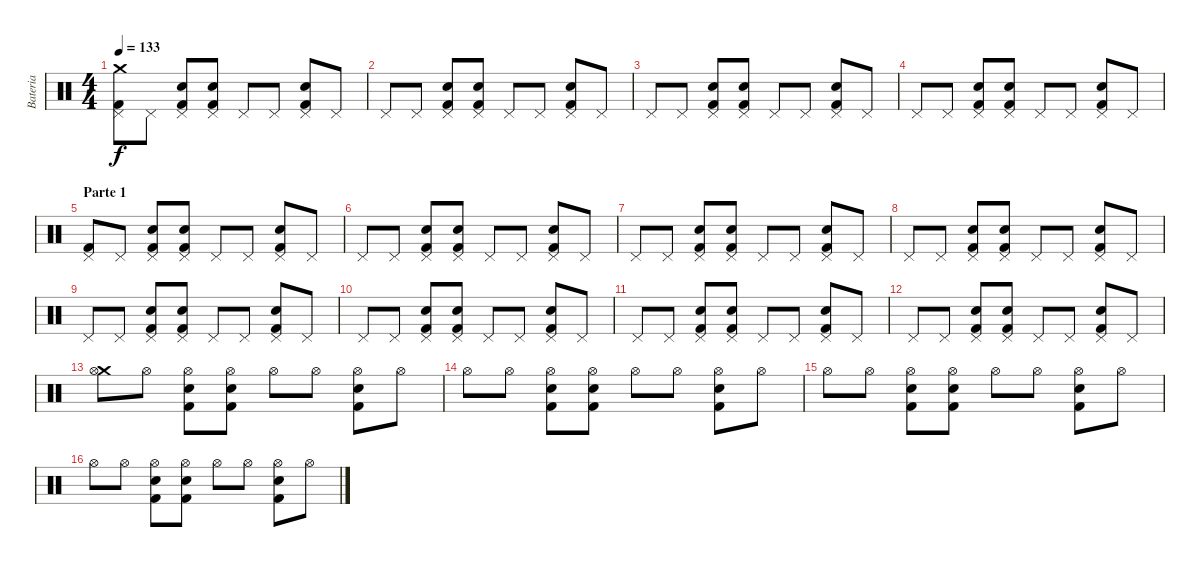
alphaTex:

\track ("Bateria" "Bateria") {instrument percussion}
\staff {score}
\articulation defaults
\ts (4 4)
\tempo 133
\clef neutral
\ks c
("Crash medium (hit)" "Kick (hit) 2" "Pedal Hi-Hat (hit)").8{dy f} "Pedal Hi-Hat (hit)".8 ("Kick (hit) 2" "Pedal Hi-Hat (hit)" "Electric Snare (hit)").8 ("Kick (hit) 2" "Pedal Hi-Hat (hit)" "Electric Snare (hit)").8 "Pedal Hi-Hat (hit)".8 "Pedal Hi-Hat (hit)".8 ("Kick (hit) 2" "Pedal Hi-Hat (hit)" "Electric Snare (hit)").8 "Pedal Hi-Hat (hit)".8 |
"Pedal Hi-Hat (hit)".8 "Pedal Hi-Hat (hit)".8 ("Kick (hit) 2" "Pedal Hi-Hat (hit)" "Electric Snare (hit)").8 ("Kick (hit) 2" "Pedal Hi-Hat (hit)" "Electric Snare (hit)").8 "Pedal Hi-Hat (hit)".8 "Pedal Hi-Hat (hit)".8 ("Kick (hit) 2" "Pedal Hi-Hat (hit)" "Electric Snare (hit)").8 "Pedal Hi-Hat (hit)".8 |
"Pedal Hi-Hat (hit)".8 "Pedal Hi-Hat (hit)".8 ("Kick (hit) 2" "Pedal Hi-Hat (hit)" "Electric Snare (hit)").8 ("Kick (hit) 2" "Pedal Hi-Hat (hit)" "Electric Snare (hit)").8 "Pedal Hi-Hat (hit)".8 "Pedal Hi-Hat (hit)".8 ("Kick (hit) 2" "Pedal Hi-Hat (hit)" "Electric Snare (hit)").8 "Pedal Hi-Hat (hit)".8 |
"Pedal Hi-Hat (hit)".8 "Pedal Hi-Hat (hit)".8 ("Kick (hit) 2" "Pedal Hi-Hat (hit)" "Electric Snare (hit)").8 ("Kick (hit) 2" "Pedal Hi-Hat (hit)" "Electric Snare (hit)").8 "Pedal Hi-Hat (hit)".8 "Pedal Hi-Hat (hit)".8 ("Kick (hit) 2" "Pedal Hi-Hat (hit)" "Electric Snare (hit)").8 "Pedal Hi-Hat (hit)".8 |
\section ("" "Parte 1")
("Pedal Hi-Hat (hit)" "Kick (hit) 2").8 "Pedal Hi-Hat (hit)".8 ("Kick (hit) 2" "Pedal Hi-Hat (hit)" "Electric Snare (hit)").8 ("Kick (hit) 2" "Pedal Hi-Hat (hit)" "Electric Snare (hit)").8 "Pedal Hi-Hat (hit)".8 "Pedal Hi-Hat (hit)".8 ("Kick (hit) 2" "Pedal Hi-Hat (hit)" "Electric Snare (hit)").8 "Pedal Hi-Hat (hit)".8 |
"Pedal Hi-Hat (hit)".8 "Pedal Hi-Hat (hit)".8 ("Kick (hit) 2" "Pedal Hi-Hat (hit)" "Electric Snare (hit)").8 ("Kick (hit) 2" "Pedal Hi-Hat (hit)" "Electric Snare (hit)").8 "Pedal Hi-Hat (hit)".8 "Pedal Hi-Hat (hit)".8 ("Kick (hit) 2" "Pedal Hi-Hat (hit)" "Electric Snare (hit)").8 "Pedal Hi-Hat (hit)".8 |
"Pedal Hi-Hat (hit)".8 "Pedal Hi-Hat (hit)".8 ("Kick (hit) 2" "Pedal Hi-Hat (hit)" "Electric Snare (hit)").8 ("Kick (hit) 2" "Pedal Hi-Hat (hit)" "Electric Snare (hit)").8 "Pedal Hi-Hat (hit)".8 "Pedal Hi-Hat (hit)".8 ("Kick (hit) 2" "Pedal Hi-Hat (hit)" "Electric Snare (hit)").8 "Pedal Hi-Hat (hit)".8 |
"Pedal Hi-Hat (hit)".8 "Pedal Hi-Hat (hit)".8 ("Kick (hit) 2" "Pedal Hi-Hat (hit)" "Electric Snare (hit)").8 ("Kick (hit) 2" "Pedal Hi-Hat (hit)" "Electric Snare (hit)").8 "Pedal Hi-Hat (hit)".8 "Pedal Hi-Hat (hit)".8 ("Kick (hit) 2" "Pedal Hi-Hat (hit)" "Electric Snare (hit)").8 "Pedal Hi-Hat (hit)".8 |
"Pedal Hi-Hat (hit)".8 "Pedal Hi-Hat (hit)".8 ("Kick (hit) 2" "Pedal Hi-Hat (hit)" "Electric Snare (hit)").8 ("Kick (hit) 2" "Pedal Hi-Hat (hit)" "Electric Snare (hit)").8 "Pedal Hi-Hat (hit)".8 "Pedal Hi-Hat (hit)".8 ("Kick (hit) 2" "Pedal Hi-Hat (hit)" "Electric Snare (hit)").8 "Pedal Hi-Hat (hit)".8 |
"Pedal Hi-Hat (hit)".8 "Pedal Hi-Hat (hit)".8 ("Kick (hit) 2" "Pedal Hi-Hat (hit)" "Electric Snare (hit)").8 ("Kick (hit) 2" "Pedal Hi-Hat (hit)" "Electric Snare (hit)").8 "Pedal Hi-Hat (hit)".8 "Pedal Hi-Hat (hit)".8 ("Kick (hit) 2" "Pedal Hi-Hat (hit)" "Electric Snare (hit)").8 "Pedal Hi-Hat (hit)".8 |
"Pedal Hi-Hat (hit)".8 "Pedal Hi-Hat (hit)".8 ("Kick (hit) 2" "Pedal Hi-Hat (hit)" "Electric Snare (hit)").8 ("Kick (hit) 2" "Pedal Hi-Hat (hit)" "Electric Snare (hit)").8 "Pedal Hi-Hat (hit)".8 "Pedal Hi-Hat (hit)".8 ("Kick (hit) 2" "Pedal Hi-Hat (hit)" "Electric Snare (hit)").8 "Pedal Hi-Hat (hit)".8 |
"Pedal Hi-Hat (hit)".8 "Pedal Hi-Hat (hit)".8 ("Kick (hit) 2" "Pedal Hi-Hat (hit)" "Electric Snare (hit)").8 ("Kick (hit) 2" "Pedal Hi-Hat (hit)" "Electric Snare (hit)").8 "Pedal Hi-Hat (hit)".8 "Pedal Hi-Hat (hit)".8 ("Kick (hit) 2" "Pedal Hi-Hat (hit)" "Electric Snare (hit)").8 "Pedal Hi-Hat (hit)".8 |
("Crash medium (hit)" "Hi-Hat (open)").8 "Hi-Hat (open)".8 ("Kick (hit) 2" "Hi-Hat (open)" "Electric Snare (hit)").8 ("Kick (hit) 2" "Hi-Hat (open)" "Electric Snare (hit)").8 "Hi-Hat (open)".8 "Hi-Hat (open)".8 ("Kick (hit) 2" "Hi-Hat (open)" "Electric Snare (hit)").8 "Hi-Hat (open)".8 |
"Hi-Hat (open)".8 "Hi-Hat (open)".8 ("Kick (hit) 2" "Hi-Hat (open)" "Electric Snare (hit)").8 ("Kick (hit) 2" "Hi-Hat (open)" "Electric Snare (hit)").8 "Hi-Hat (open)".8 "Hi-Hat (open)".8 ("Kick (hit) 2" "Hi-Hat (open)" "Electric Snare (hit)").8 "Hi-Hat (open)".8 |
"Hi-Hat (open)".8 "Hi-Hat (open)".8 ("Kick (hit) 2" "Hi-Hat (open)" "Electric Snare (hit)").8 ("Kick (hit) 2" "Hi-Hat (open)" "Electric Snare (hit)").8 "Hi-Hat (open)".8 "Hi-Hat (open)".8 ("Kick (hit) 2" "Hi-Hat (open)" "Electric Snare (hit)").8 "Hi-Hat (open)".8 |
"Hi-Hat (open)".8 "Hi-Hat (open)".8 ("Kick (hit) 2" "Hi-Hat (open)" "Electric Snare (hit)").8 ("Kick (hit) 2" "Hi-Hat (open)" "Electric Snare (hit)").8 "Hi-Hat (open)".8 "Hi-Hat (open)".8 ("Kick (hit) 2" "Hi-Hat (open)" "Electric Snare (hit)").8 "Hi-Hat (open)".8
